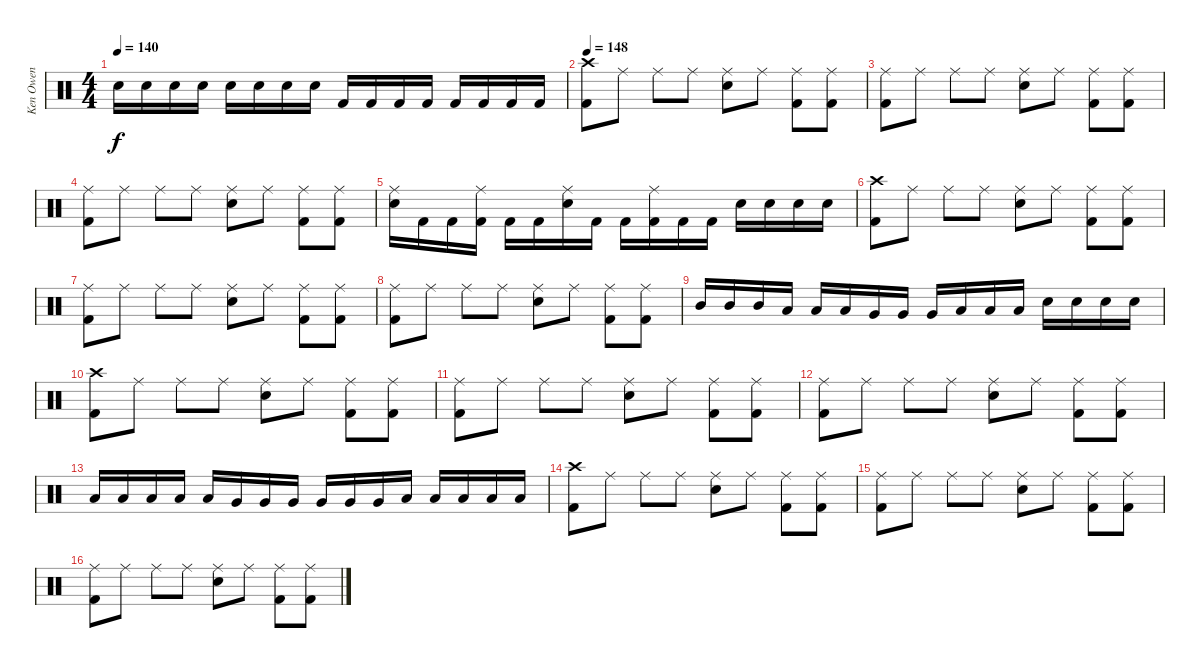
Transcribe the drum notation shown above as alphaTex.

\track ("Ken Owen" "Ken Owen") {instrument percussion}
\staff {score}
\articulation defaults
\ts (4 4)
\tempo 140
\clef neutral
\ks c "Snare (hit) 2".16{dy f} "Snare (hit) 2".16 "Snare (hit) 2".16 "Snare (hit) 2".16 "Snare (hit) 2".16 "Snare (hit) 2".16 "Snare (hit) 2".16 "Snare (hit) 2".16 "Kick (hit) 2".16 "Kick (hit) 2".16 "Kick (hit) 2".16 "Kick (hit) 2".16 "Kick (hit) 2".16 "Kick (hit) 2".16 "Kick (hit) 2".16 "Kick (hit) 2".16
|
\tempo 148
("Crash high (hit)" "Kick (hit) 2").8 "Ride (middle)".8 "Ride (middle)".8 "Ride (middle)".8 ("Ride (middle)" "Snare (hit) 2").8 "Ride (middle)".8 ("Ride (middle)" "Kick (hit) 2").8 ("Ride (middle)" "Kick (hit) 2").8 |
("Ride (middle)" "Kick (hit) 2").8 "Ride (middle)".8 "Ride (middle)".8 "Ride (middle)".8 ("Ride (middle)" "Snare (hit) 2").8 "Ride (middle)".8 ("Ride (middle)" "Kick (hit) 2").8 ("Ride (middle)" "Kick (hit) 2").8 |
("Ride (middle)" "Kick (hit) 2").8 "Ride (middle)".8 "Ride (middle)".8 "Ride (middle)".8 ("Ride (middle)" "Snare (hit) 2").8 "Ride (middle)".8 ("Ride (middle)" "Kick (hit) 2").8 ("Ride (middle)" "Kick (hit) 2").8 |
("Ride (middle)" "Snare (hit) 2").16 "Kick (hit) 2".16 "Kick (hit) 2".16 ("Ride (middle)" "Kick (hit) 2").16 "Kick (hit) 2".16 "Kick (hit) 2".16 ("Ride (middle)" "Snare (hit) 2").16 "Kick (hit) 2".16 "Kick (hit) 2".16 ("Ride (middle)" "Kick (hit) 2").16 "Kick (hit) 2".16 "Kick (hit) 2".16 "Snare (hit) 2".16 "Snare (hit) 2".16 "Snare (hit) 2".16 "Snare (hit) 2".16 |
("Crash high (hit)" "Kick (hit) 2").8 "Ride (middle)".8 "Ride (middle)".8 "Ride (middle)".8 ("Ride (middle)" "Snare (hit) 2").8 "Ride (middle)".8 ("Ride (middle)" "Kick (hit) 2").8 ("Ride (middle)" "Kick (hit) 2").8 |
("Ride (middle)" "Kick (hit) 2").8 "Ride (middle)".8 "Ride (middle)".8 "Ride (middle)".8 ("Ride (middle)" "Snare (hit) 2").8 "Ride (middle)".8 ("Ride (middle)" "Kick (hit) 2").8 ("Ride (middle)" "Kick (hit) 2").8 |
("Ride (middle)" "Kick (hit) 2").8 "Ride (middle)".8 "Ride (middle)".8 "Ride (middle)".8 ("Ride (middle)" "Snare (hit) 2").8 "Ride (middle)".8 ("Ride (middle)" "Kick (hit) 2").8 ("Ride (middle)" "Kick (hit) 2").8 |
"Mid Tom (hit)".16 "Mid Tom (hit)".16 "Mid Tom (hit)".16 "Low Tom (hit)".16 "Low Tom (hit)".16 "Low Tom (hit)".16 "Very Low Tom (hit)".16 "Very Low Tom (hit)".16 "Very Low Tom (hit)".16 "Low Floor Tom (hit)".16 "Low Floor Tom (hit)".16 "Low Floor Tom (hit)".16 "Snare (hit) 2".16 "Snare (hit) 2".16 "Snare (hit) 2".16 "Snare (hit) 2".16 |
("Crash high (hit)" "Kick (hit) 2").8 "Ride (middle)".8 "Ride (middle)".8 "Ride (middle)".8 ("Ride (middle)" "Snare (hit) 2").8 "Ride (middle)".8 ("Ride (middle)" "Kick (hit) 2").8 ("Ride (middle)" "Kick (hit) 2").8 |
("Ride (middle)" "Kick (hit) 2").8 "Ride (middle)".8 "Ride (middle)".8 "Ride (middle)".8 ("Ride (middle)" "Snare (hit) 2").8 "Ride (middle)".8 ("Ride (middle)" "Kick (hit) 2").8 ("Ride (middle)" "Kick (hit) 2").8 |
("Ride (middle)" "Kick (hit) 2").8 "Ride (middle)".8 "Ride (middle)".8 "Ride (middle)".8 ("Ride (middle)" "Snare (hit) 2").8 "Ride (middle)".8 ("Ride (middle)" "Kick (hit) 2").8 ("Ride (middle)" "Kick (hit) 2").8 |
"Low Tom (hit)".16 "Low Tom (hit)".16 "Low Tom (hit)".16 "Low Tom (hit)".16 "Low Tom (hit)".16 "Very Low Tom (hit)".16 "Very Low Tom (hit)".16 "Very Low Tom (hit)".16 "Very Low Tom (hit)".16 "Very Low Tom (hit)".16 "Very Low Tom (hit)".16 "Low Floor Tom (hit)".16 "Low Floor Tom (hit)".16 "Low Floor Tom (hit)".16 "Low Floor Tom (hit)".16 "Low Floor Tom (hit)".16 |
("Crash high (hit)" "Kick (hit) 2").8 "Ride (middle)".8 "Ride (middle)".8 "Ride (middle)".8 ("Ride (middle)" "Snare (hit) 2").8 "Ride (middle)".8 ("Ride (middle)" "Kick (hit) 2").8 ("Ride (middle)" "Kick (hit) 2").8 |
("Ride (middle)" "Kick (hit) 2").8 "Ride (middle)".8 "Ride (middle)".8 "Ride (middle)".8 ("Ride (middle)" "Snare (hit) 2").8 "Ride (middle)".8 ("Ride (middle)" "Kick (hit) 2").8 ("Ride (middle)" "Kick (hit) 2").8 |
("Ride (middle)" "Kick (hit) 2").8 "Ride (middle)".8 "Ride (middle)".8 "Ride (middle)".8 ("Ride (middle)" "Snare (hit) 2").8 "Ride (middle)".8 ("Ride (middle)" "Kick (hit) 2").8 ("Ride (middle)" "Kick (hit) 2").8
